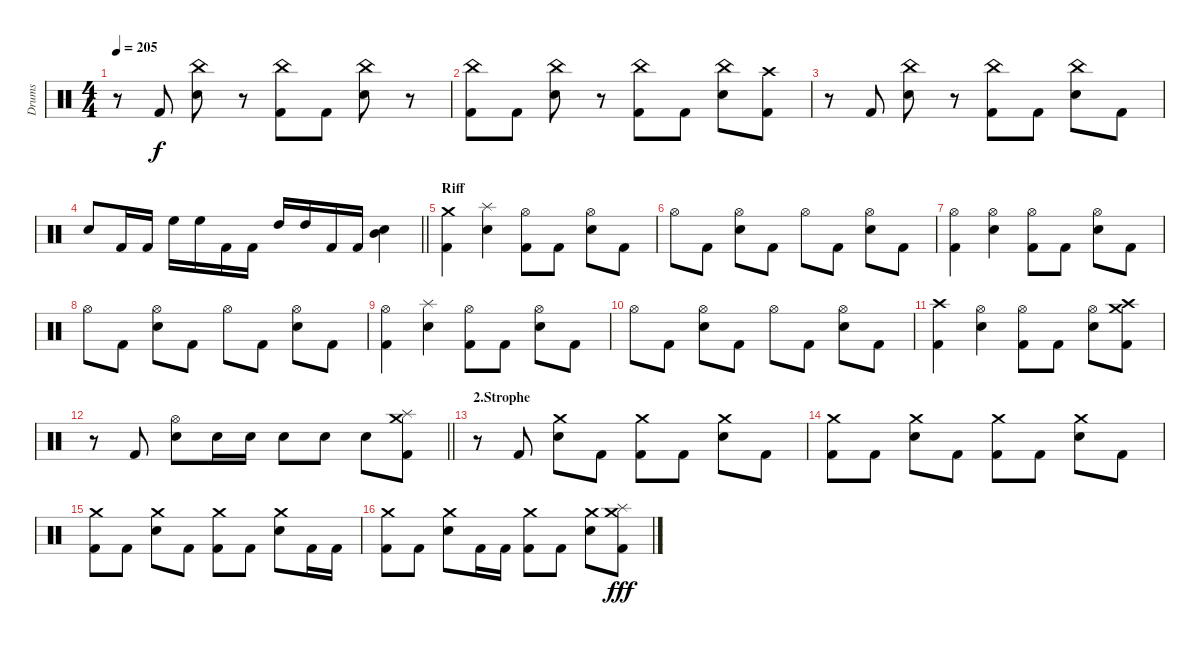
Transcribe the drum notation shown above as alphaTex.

\track ("Drums" "Drums") {instrument percussion}
\staff {score}
\articulation defaults
\ts (4 4)
\tempo 205
\clef neutral
\ks c
r.8{dy f} "Kick (hit) 2".8 ("China (hit)" "Electric Snare (hit)").8 r.8 ("China (hit)" "Kick (hit) 2").8 "Kick (hit) 2".8 ("China (hit)" "Electric Snare (hit)").8 r.8 |
("China (hit)" "Kick (hit) 2").8 "Kick (hit) 2".8 ("China (hit)" "Electric Snare (hit)").8 r.8 ("China (hit)" "Kick (hit) 2").8 "Kick (hit) 2".8 ("China (hit)" "Electric Snare (hit)").8 ("Crash high (hit)" "Kick (hit) 2").8 |
r.8 "Kick (hit) 2".8 ("China (hit)" "Electric Snare (hit)").8 r.8 ("China (hit)" "Kick (hit) 2").8 "Kick (hit) 2".8 ("China (hit)" "Electric Snare (hit)").8 "Kick (hit) 2".8 |
\barLineRight lightlight "Electric Snare (hit)".8 "Kick (hit) 2".16 "Kick (hit) 2".16 "High Floor Tom (hit)".16 "High Floor Tom (hit)".16 "Kick (hit) 2".16 "Kick (hit) 2".16 "High Tom (hit)".16 "High Tom (hit)".16 "Kick (hit) 2".16 "Kick (hit) 2".16
("Mid Tom (hit)" "Electric Snare (hit)").4 |
\section ("" "Riff")
("Crash medium (hit)" "Kick (hit) 2").4 ("Splash (hit)" "Electric Snare (hit)").4 ("Hi-Hat (open)" "Kick (hit) 2").8 "Kick (hit) 2".8 ("Hi-Hat (open)" "Electric Snare (hit)").8 "Kick (hit) 2".8 |
"Hi-Hat (open)".8 "Kick (hit) 2".8 ("Hi-Hat (open)" "Electric Snare (hit)").8 "Kick (hit) 2".8 "Hi-Hat (open)".8 "Kick (hit) 2".8 ("Hi-Hat (open)" "Electric Snare (hit)").8 "Kick (hit) 2".8 |
("Hi-Hat (open)" "Kick (hit) 2").4 ("Hi-Hat (open)" "Electric Snare (hit)").4 ("Hi-Hat (open)" "Kick (hit) 2").8 "Kick (hit) 2".8 ("Hi-Hat (open)" "Electric Snare (hit)").8 "Kick (hit) 2".8 |
"Hi-Hat (open)".8 "Kick (hit) 2".8 ("Hi-Hat (open)" "Electric Snare (hit)").8 "Kick (hit) 2".8 "Hi-Hat (open)".8 "Kick (hit) 2".8 ("Hi-Hat (open)" "Electric Snare (hit)").8 "Kick (hit) 2".8 |
("Hi-Hat (open)" "Kick (hit) 2").4 ("Splash (hit)" "Electric Snare (hit)").4 ("Hi-Hat (open)" "Kick (hit) 2").8 "Kick (hit) 2".8 ("Hi-Hat (open)" "Electric Snare (hit)").8 "Kick (hit) 2".8 |
"Hi-Hat (open)".8 "Kick (hit) 2".8 ("Hi-Hat (open)" "Electric Snare (hit)").8 "Kick (hit) 2".8 "Hi-Hat (open)".8 "Kick (hit) 2".8 ("Hi-Hat (open)" "Electric Snare (hit)").8 "Kick (hit) 2".8 |
("Crash high (hit)" "Kick (hit) 2").4 ("Hi-Hat (open)" "Electric Snare (hit)").4 ("Hi-Hat (open)" "Kick (hit) 2").8 "Kick (hit) 2".8 ("Hi-Hat (open)" "Electric Snare (hit)").8 ("Crash high (hit)" "Crash medium (hit)" "Kick (hit) 2").8 |
\barLineRight lightlight
r.8 "Kick (hit) 2".8 ("Hi-Hat (open)" "Electric Snare (hit)").8 "Electric Snare (hit)".16 "Electric Snare (hit)".16 "Electric Snare (hit)".8 "Electric Snare (hit)".8 "Electric Snare (hit)".8 ("Splash (hit)" "Crash medium (hit)" "Kick (hit) 2").8 |
\section ("" "2.Strophe")
r.8 "Kick (hit) 2".8 ("Crash medium (hit)" "Electric Snare (hit)").8 "Kick (hit) 2".8 ("Crash medium (hit)" "Kick (hit) 2").8 "Kick (hit) 2".8 ("Crash medium (hit)" "Electric Snare (hit)").8 "Kick (hit) 2".8 |
("Crash medium (hit)" "Kick (hit) 2").8 "Kick (hit) 2".8 ("Crash medium (hit)" "Electric Snare (hit)").8 "Kick (hit) 2".8 ("Crash medium (hit)" "Kick (hit) 2").8 "Kick (hit) 2".8 ("Crash medium (hit)" "Electric Snare (hit)").8 "Kick (hit) 2".8 |
("Crash medium (hit)" "Kick (hit) 2").8 "Kick (hit) 2".8 ("Crash medium (hit)" "Electric Snare (hit)").8 "Kick (hit) 2".8 ("Crash medium (hit)" "Kick (hit) 2").8 "Kick (hit) 2".8 ("Crash medium (hit)" "Electric Snare (hit)").8 "Kick (hit) 2".16 "Kick (hit) 2".16 |
("Crash medium (hit)" "Kick (hit) 2").8 "Kick (hit) 2".8 ("Crash medium (hit)" "Electric Snare (hit)").8 "Kick (hit) 2".16 "Kick (hit) 2".16 ("Crash medium (hit)" "Kick (hit) 2").8 "Kick (hit) 2".8 ("Crash medium (hit)" "Electric Snare (hit)").8 ("Splash (hit)" "Crash medium (hit)" "Kick (hit) 2").8{dy fff}
